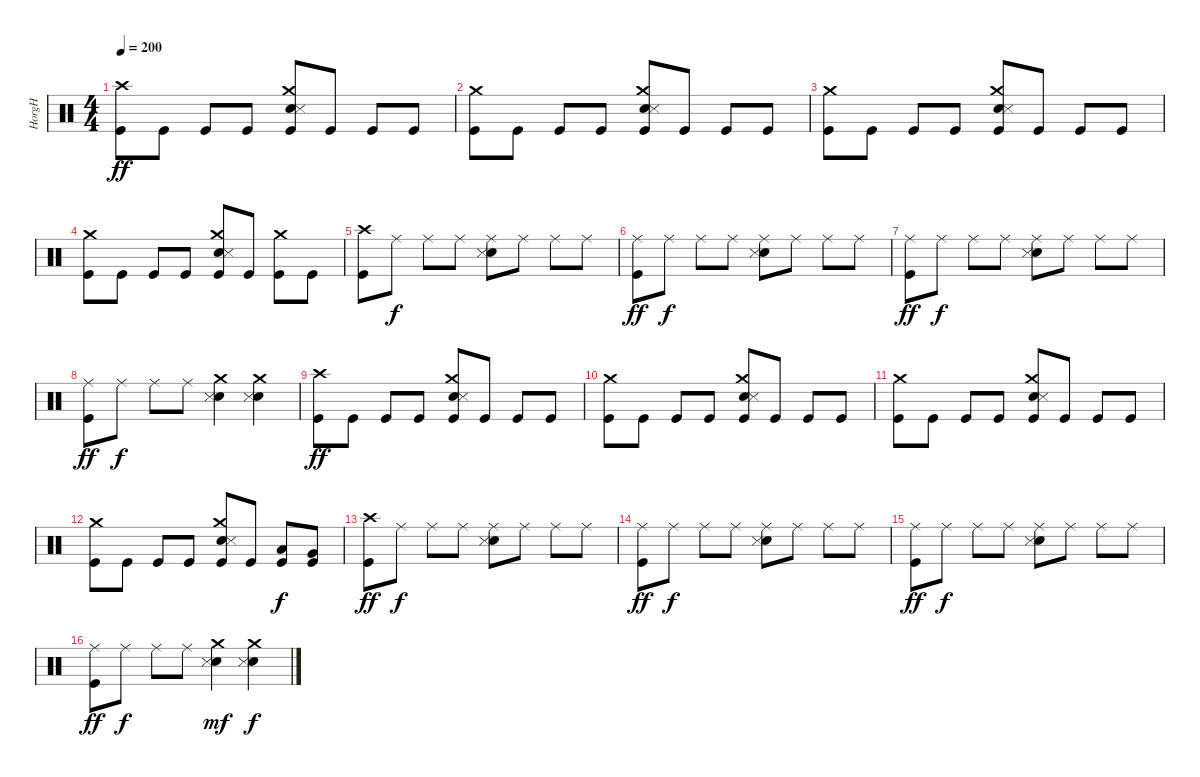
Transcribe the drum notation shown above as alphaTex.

\track ("HorgH" "HorgH") {instrument percussion}
\staff {score}
\articulation defaults
\ts (4 4)
\section ("" "")
\tempo 200
\clef neutral
\ks c
("Crash high (hit)" "Kick (hit)").8{dy ff} "Kick (hit)".8 "Kick (hit)".8 "Kick (hit)".8 ("Crash medium (hit)" "Electric Snare (hit)" "Snare (side stick) 3" "Kick (hit)").8 "Kick (hit)".8 "Kick (hit)".8 "Kick (hit)".8 |
("Crash medium (hit)" "Kick (hit)").8 "Kick (hit)".8 "Kick (hit)".8 "Kick (hit)".8 ("Crash medium (hit)" "Electric Snare (hit)" "Snare (side stick) 3" "Kick (hit)").8 "Kick (hit)".8 "Kick (hit)".8 "Kick (hit)".8 |
("Crash medium (hit)" "Kick (hit)").8 "Kick (hit)".8 "Kick (hit)".8 "Kick (hit)".8 ("Crash medium (hit)" "Electric Snare (hit)" "Snare (side stick) 3" "Kick (hit)").8 "Kick (hit)".8 "Kick (hit)".8 "Kick (hit)".8 |
("Crash medium (hit)" "Kick (hit)").8 "Kick (hit)".8 "Kick (hit)".8 "Kick (hit)".8 ("Crash medium (hit)" "Electric Snare (hit)" "Snare (side stick) 3" "Kick (hit)").8 "Kick (hit)".8 ("Crash medium (hit)" "Kick (hit)").8 "Kick (hit)".8 |
("Crash high (hit)" "Kick (hit)").8 "Ride (middle)".8{dy f} "Ride (middle)".8 "Ride (middle)".8 ("Ride (middle)" "Electric Snare (hit)" "Snare (side stick) 3").8 "Ride (middle)".8 "Ride (middle)".8 "Ride (middle)".8 |
("Ride (middle)" "Kick (hit)").8{dy ff} "Ride (middle)".8{dy f} "Ride (middle)".8 "Ride (middle)".8 ("Ride (middle)" "Electric Snare (hit)" "Snare (side stick) 3").8 "Ride (middle)".8 "Ride (middle)".8 "Ride (middle)".8 |
("Ride (middle)" "Kick (hit)").8{dy ff} "Ride (middle)".8{dy f} "Ride (middle)".8 "Ride (middle)".8 ("Ride (middle)" "Electric Snare (hit)" "Snare (side stick) 3").8 "Ride (middle)".8 "Ride (middle)".8 "Ride (middle)".8 |
("Ride (middle)" "Kick (hit)").8{dy ff} "Ride (middle)".8{dy f} "Ride (middle)".8 "Ride (middle)".8 ("Crash medium (hit)" "Electric Snare (hit)" "Snare (side stick) 3").4 ("Crash medium (hit)" "Electric Snare (hit)" "Snare (side stick) 3").4 |
("Crash high (hit)" "Kick (hit)").8{dy ff} "Kick (hit)".8 "Kick (hit)".8 "Kick (hit)".8 ("Crash medium (hit)" "Electric Snare (hit)" "Snare (side stick) 3" "Kick (hit)").8 "Kick (hit)".8 "Kick (hit)".8 "Kick (hit)".8 |
("Crash medium (hit)" "Kick (hit)").8 "Kick (hit)".8 "Kick (hit)".8 "Kick (hit)".8 ("Crash medium (hit)" "Electric Snare (hit)" "Snare (side stick) 3" "Kick (hit)").8 "Kick (hit)".8 "Kick (hit)".8 "Kick (hit)".8 |
("Crash medium (hit)" "Kick (hit)").8 "Kick (hit)".8 "Kick (hit)".8 "Kick (hit)".8 ("Crash medium (hit)" "Electric Snare (hit)" "Snare (side stick) 3" "Kick (hit)").8 "Kick (hit)".8 "Kick (hit)".8 "Kick (hit)".8 |
("Crash medium (hit)" "Kick (hit)").8 "Kick (hit)".8 "Kick (hit)".8 "Kick (hit)".8 ("Crash medium (hit)" "Electric Snare (hit)" "Snare (side stick) 3" "Kick (hit)").8 "Kick (hit)".8 ("Low Tom (hit)" "Kick (hit)").8{dy f} ("Very Low Tom (hit)" "Kick (hit)").8 |
("Crash high (hit)" "Kick (hit)").8{dy ff} "Ride (middle)".8{dy f} "Ride (middle)".8 "Ride (middle)".8 ("Ride (middle)" "Electric Snare (hit)" "Snare (side stick) 3").8 "Ride (middle)".8 "Ride (middle)".8 "Ride (middle)".8 |
("Ride (middle)" "Kick (hit)").8{dy ff} "Ride (middle)".8{dy f} "Ride (middle)".8 "Ride (middle)".8 ("Ride (middle)" "Electric Snare (hit)" "Snare (side stick) 3").8 "Ride (middle)".8 "Ride (middle)".8 "Ride (middle)".8 |
("Ride (middle)" "Kick (hit)").8{dy ff} "Ride (middle)".8{dy f} "Ride (middle)".8 "Ride (middle)".8 ("Ride (middle)" "Electric Snare (hit)" "Snare (side stick) 3").8 "Ride (middle)".8 "Ride (middle)".8 "Ride (middle)".8 |
("Ride (middle)" "Kick (hit)").8{dy ff} "Ride (middle)".8{dy f} "Ride (middle)".8 "Ride (middle)".8 ("Crash medium (hit)" "Electric Snare (hit)" "Snare (side stick) 3").4{dy mf} ("Crash medium (hit)" "Electric Snare (hit)" "Snare (side stick) 3").4{dy f}
